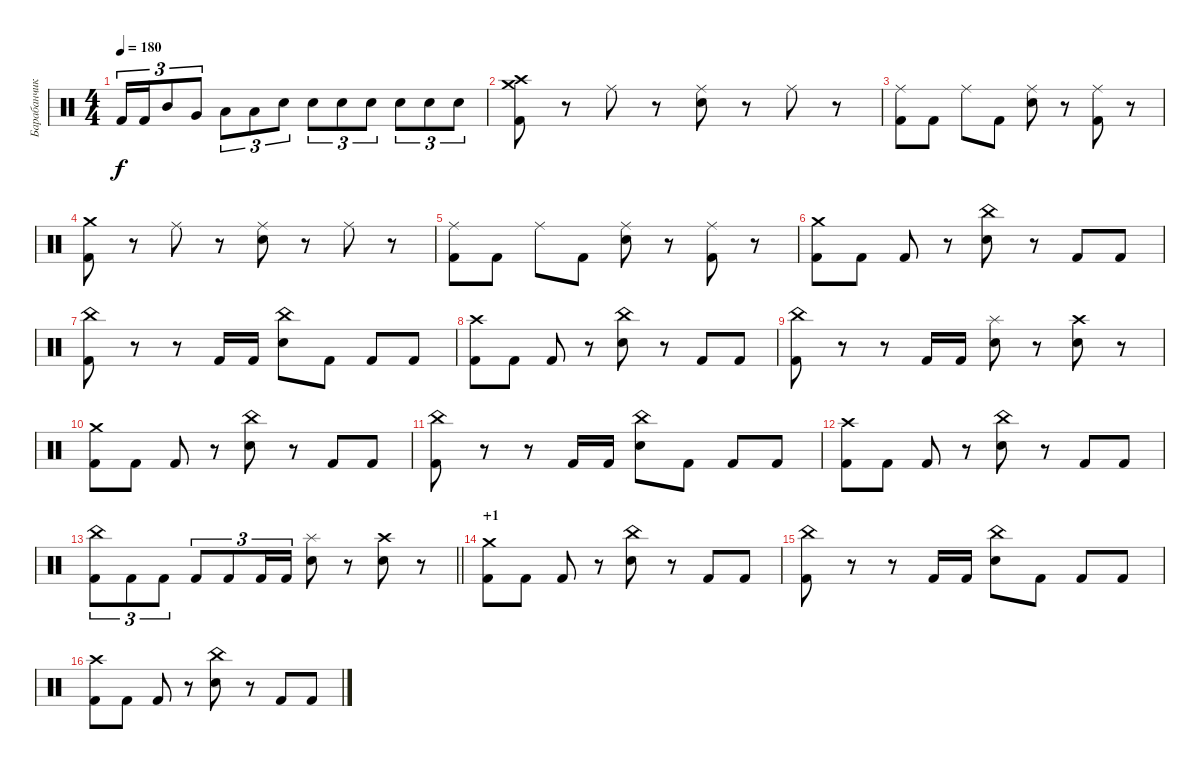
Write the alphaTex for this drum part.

\track ("Барабанчики" "Барабанчик") {instrument percussion}
\staff {score}
\articulation defaults
\ts (4 4)
\tempo 180
\clef neutral
\ks c "Kick (hit) 2".16{tu (3 2) dy f} "Kick (hit) 2".16{tu (3 2)} "Mid Tom (hit)".8{tu (3 2)} "Very Low Tom (hit)".8{tu (3 2)} "Low Tom (hit)".8{tu (3 2)} "Low Floor Tom (hit)".8{tu (3 2)} "Electric Snare (hit)".8{tu (3 2)} "Electric Snare (hit)".8{tu (3 2)} "Electric Snare (hit)".8{tu (3 2)} "Electric Snare (hit)".8{tu (3 2)} "Electric Snare (hit)".8{tu (3 2)} "Electric Snare (hit)".8{tu (3 2)} "Electric Snare (hit)".8{tu (3 2)}
|
("Kick (hit) 2" "Crash high (hit)" "Crash medium (hit)").8 r.8 "Ride (middle)".8 r.8 ("Electric Snare (hit)" "Ride (middle)").8 r.8 "Ride (middle)".8 r.8 |
("Kick (hit) 2" "Ride (middle)").8 "Kick (hit) 2".8 "Ride (middle)".8 "Kick (hit) 2".8 ("Electric Snare (hit)" "Ride (middle)").8 r.8 ("Kick (hit) 2" "Ride (middle)").8 r.8 |
("Kick (hit) 2" "Crash medium (hit)").8 r.8 "Ride (middle)".8 r.8 ("Electric Snare (hit)" "Ride (middle)").8 r.8 "Ride (middle)".8 r.8 |
("Kick (hit) 2" "Ride (middle)").8 "Kick (hit) 2".8 "Ride (middle)".8 "Kick (hit) 2".8 ("Electric Snare (hit)" "Ride (middle)").8 r.8 ("Kick (hit) 2" "Ride (middle)").8 r.8 |
("Kick (hit) 2" "Crash medium (hit)").8 "Kick (hit) 2".8 "Kick (hit) 2".8 r.8 ("Electric Snare (hit)" "China (hit)").8 r.8 "Kick (hit) 2".8 "Kick (hit) 2".8 |
("Kick (hit) 2" "China (hit)").8 r.8 r.8 "Kick (hit) 2".16 "Kick (hit) 2".16 ("Electric Snare (hit)" "China (hit)").8 "Kick (hit) 2".8 "Kick (hit) 2".8 "Kick (hit) 2".8 |
("Kick (hit) 2" "Crash high (hit)").8 "Kick (hit) 2".8 "Kick (hit) 2".8 r.8 ("Electric Snare (hit)" "China (hit)").8 r.8 "Kick (hit) 2".8 "Kick (hit) 2".8 |
("Kick (hit) 2" "China (hit)").8 r.8 r.8 "Kick (hit) 2".16 "Kick (hit) 2".16 ("Electric Snare (hit)" "Splash (hit)").8 r.8 ("Electric Snare (hit)" "Crash high (hit)").8 r.8 |
("Kick (hit) 2" "Crash medium (hit)").8 "Kick (hit) 2".8 "Kick (hit) 2".8 r.8 ("Electric Snare (hit)" "China (hit)").8 r.8 "Kick (hit) 2".8 "Kick (hit) 2".8 |
("Kick (hit) 2" "China (hit)").8 r.8 r.8 "Kick (hit) 2".16 "Kick (hit) 2".16 ("Electric Snare (hit)" "China (hit)").8 "Kick (hit) 2".8 "Kick (hit) 2".8 "Kick (hit) 2".8 |
("Kick (hit) 2" "Crash high (hit)").8 "Kick (hit) 2".8 "Kick (hit) 2".8 r.8 ("Electric Snare (hit)" "China (hit)").8 r.8 "Kick (hit) 2".8 "Kick (hit) 2".8 |
\barLineRight lightlight
("Kick (hit) 2" "China (hit)").8{tu (3 2)} "Kick (hit) 2".8{tu (3 2)} "Kick (hit) 2".8{tu (3 2)} "Kick (hit) 2".8{tu (3 2)} "Kick (hit) 2".8{tu (3 2)} "Kick (hit) 2".16{tu (3 2)} "Kick (hit) 2".16{tu (3 2)} ("Electric Snare (hit)" "Splash (hit)").8 r.8 ("Electric Snare (hit)" "Crash high (hit)").8 r.8 |
\section ("" "+1")
("Kick (hit) 2" "Crash medium (hit)").8 "Kick (hit) 2".8 "Kick (hit) 2".8 r.8 ("Electric Snare (hit)" "China (hit)").8 r.8 "Kick (hit) 2".8 "Kick (hit) 2".8 |
("Kick (hit) 2" "China (hit)").8 r.8 r.8 "Kick (hit) 2".16 "Kick (hit) 2".16 ("Electric Snare (hit)" "China (hit)").8 "Kick (hit) 2".8 "Kick (hit) 2".8 "Kick (hit) 2".8 |
("Kick (hit) 2" "Crash high (hit)").8 "Kick (hit) 2".8 "Kick (hit) 2".8 r.8 ("Electric Snare (hit)" "China (hit)").8 r.8 "Kick (hit) 2".8 "Kick (hit) 2".8
